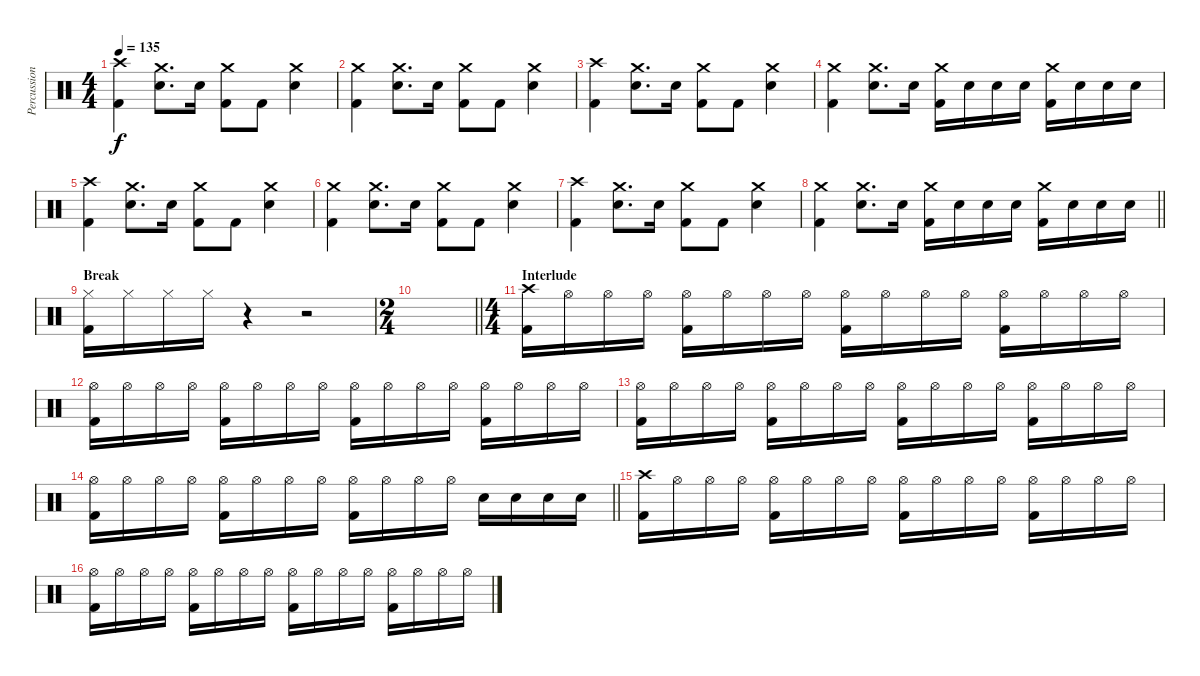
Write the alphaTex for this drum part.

\track ("Percussion" "Percussion") {instrument percussion}
\staff {score}
\articulation defaults
\ts (4 4)
\tempo 135
\clef neutral
\ks c
("Crash high (hit)" "Kick (hit) 2").4{dy f} ("Crash medium (hit)" "Electric Snare (hit)").8{d} "Electric Snare (hit)".16 ("Crash medium (hit)" "Kick (hit) 2").8 "Kick (hit) 2".8 ("Crash medium (hit)" "Electric Snare (hit)").4 |
("Crash medium (hit)" "Kick (hit) 2").4 ("Crash medium (hit)" "Electric Snare (hit)").8{d} "Electric Snare (hit)".16 ("Crash medium (hit)" "Kick (hit) 2").8 "Kick (hit) 2".8 ("Crash medium (hit)" "Electric Snare (hit)").4 |
("Crash high (hit)" "Kick (hit) 2").4 ("Crash medium (hit)" "Electric Snare (hit)").8{d} "Electric Snare (hit)".16 ("Crash medium (hit)" "Kick (hit) 2").8 "Kick (hit) 2".8 ("Crash medium (hit)" "Electric Snare (hit)").4 |
("Crash medium (hit)" "Kick (hit) 2").4 ("Crash medium (hit)" "Electric Snare (hit)").8{d} "Electric Snare (hit)".16 ("Crash medium (hit)" "Kick (hit) 2").16 "Electric Snare (hit)".16 "Electric Snare (hit)".16 "Electric Snare (hit)".16 ("Crash medium (hit)" "Kick (hit) 2").16 "Electric Snare (hit)".16 "Electric Snare (hit)".16 "Electric Snare (hit)".16 |
("Crash high (hit)" "Kick (hit) 2").4 ("Crash medium (hit)" "Electric Snare (hit)").8{d} "Electric Snare (hit)".16 ("Crash medium (hit)" "Kick (hit) 2").8 "Kick (hit) 2".8 ("Crash medium (hit)" "Electric Snare (hit)").4 |
("Crash medium (hit)" "Kick (hit) 2").4 ("Crash medium (hit)" "Electric Snare (hit)").8{d} "Electric Snare (hit)".16 ("Crash medium (hit)" "Kick (hit) 2").8 "Kick (hit) 2".8 ("Crash medium (hit)" "Electric Snare (hit)").4 |
("Crash high (hit)" "Kick (hit) 2").4 ("Crash medium (hit)" "Electric Snare (hit)").8{d} "Electric Snare (hit)".16 ("Crash medium (hit)" "Kick (hit) 2").8 "Kick (hit) 2".8 ("Crash medium (hit)" "Electric Snare (hit)").4 |
\barLineRight lightlight
("Crash medium (hit)" "Kick (hit) 2").4 ("Crash medium (hit)" "Electric Snare (hit)").8{d} "Electric Snare (hit)".16 ("Crash medium (hit)" "Kick (hit) 2").16 "Electric Snare (hit)".16 "Electric Snare (hit)".16 "Electric Snare (hit)".16 ("Crash medium (hit)" "Kick (hit) 2").16 "Electric Snare (hit)".16 "Electric Snare (hit)".16 "Electric Snare (hit)".16 |
\section ("" "Break")
("Hi-Hat (closed)" "Kick (hit) 2").16 "Hi-Hat (closed)".16 "Hi-Hat (closed)".16 "Hi-Hat (closed)".16 r.4 r.2 |
\ts (2 4)
\barLineRight lightlight
|
\ts (4 4)
\section ("" "Interlude")
("Crash high (hit)" "Kick (hit) 2").16 "Hi-Hat (open)".16 "Hi-Hat (open)".16 "Hi-Hat (open)".16 ("Hi-Hat (open)" "Kick (hit) 2").16 "Hi-Hat (open)".16 "Hi-Hat (open)".16 "Hi-Hat (open)".16 ("Hi-Hat (open)" "Kick (hit) 2").16 "Hi-Hat (open)".16 "Hi-Hat (open)".16 "Hi-Hat (open)".16 ("Hi-Hat (open)" "Kick (hit) 2").16 "Hi-Hat (open)".16 "Hi-Hat (open)".16 "Hi-Hat (open)".16 |
("Hi-Hat (open)" "Kick (hit) 2").16 "Hi-Hat (open)".16 "Hi-Hat (open)".16 "Hi-Hat (open)".16 ("Hi-Hat (open)" "Kick (hit) 2").16 "Hi-Hat (open)".16 "Hi-Hat (open)".16 "Hi-Hat (open)".16 ("Hi-Hat (open)" "Kick (hit) 2").16 "Hi-Hat (open)".16 "Hi-Hat (open)".16 "Hi-Hat (open)".16 ("Hi-Hat (open)" "Kick (hit) 2").16 "Hi-Hat (open)".16 "Hi-Hat (open)".16 "Hi-Hat (open)".16 |
("Hi-Hat (open)" "Kick (hit) 2").16 "Hi-Hat (open)".16 "Hi-Hat (open)".16 "Hi-Hat (open)".16 ("Hi-Hat (open)" "Kick (hit) 2").16 "Hi-Hat (open)".16 "Hi-Hat (open)".16 "Hi-Hat (open)".16 ("Hi-Hat (open)" "Kick (hit) 2").16 "Hi-Hat (open)".16 "Hi-Hat (open)".16 "Hi-Hat (open)".16 ("Hi-Hat (open)" "Kick (hit) 2").16 "Hi-Hat (open)".16 "Hi-Hat (open)".16 "Hi-Hat (open)".16 |
\barLineRight lightlight
("Hi-Hat (open)" "Kick (hit) 2").16 "Hi-Hat (open)".16 "Hi-Hat (open)".16 "Hi-Hat (open)".16 ("Hi-Hat (open)" "Kick (hit) 2").16 "Hi-Hat (open)".16 "Hi-Hat (open)".16 "Hi-Hat (open)".16 ("Hi-Hat (open)" "Kick (hit) 2").16 "Hi-Hat (open)".16 "Hi-Hat (open)".16 "Hi-Hat (open)".16 "Electric Snare (hit)".16 "Electric Snare (hit)".16 "Electric Snare (hit)".16 "Electric Snare (hit)".16 |
("Crash high (hit)" "Kick (hit) 2").16 "Hi-Hat (open)".16 "Hi-Hat (open)".16 "Hi-Hat (open)".16 ("Hi-Hat (open)" "Kick (hit) 2").16 "Hi-Hat (open)".16 "Hi-Hat (open)".16 "Hi-Hat (open)".16 ("Hi-Hat (open)" "Kick (hit) 2").16 "Hi-Hat (open)".16 "Hi-Hat (open)".16 "Hi-Hat (open)".16 ("Hi-Hat (open)" "Kick (hit) 2").16 "Hi-Hat (open)".16 "Hi-Hat (open)".16 "Hi-Hat (open)".16 |
("Hi-Hat (open)" "Kick (hit) 2").16 "Hi-Hat (open)".16 "Hi-Hat (open)".16 "Hi-Hat (open)".16 ("Hi-Hat (open)" "Kick (hit) 2").16 "Hi-Hat (open)".16 "Hi-Hat (open)".16 "Hi-Hat (open)".16 ("Hi-Hat (open)" "Kick (hit) 2").16 "Hi-Hat (open)".16 "Hi-Hat (open)".16 "Hi-Hat (open)".16 ("Hi-Hat (open)" "Kick (hit) 2").16 "Hi-Hat (open)".16 "Hi-Hat (open)".16 "Hi-Hat (open)".16
